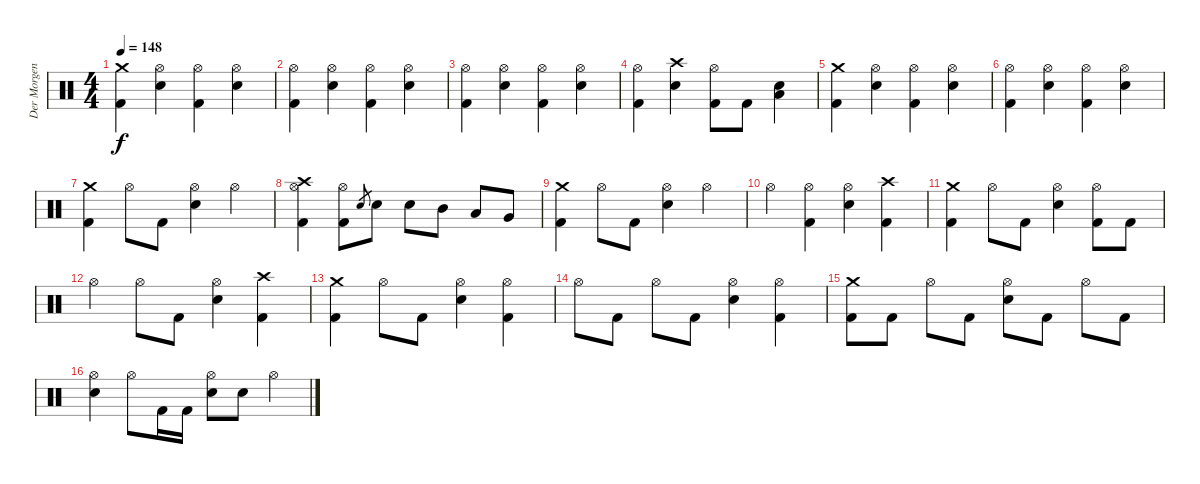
\track ("Der Morgenstern" "Der Morgen") {instrument percussion}
\staff {score}
\articulation defaults
\ts (4 4)
\tempo 148
\clef neutral
\ks c
("Crash medium (hit)" "Kick (hit) 2").4{dy f} ("Hi-Hat (open)" "Electric Snare (hit)").4 ("Hi-Hat (open)" "Kick (hit) 2").4 ("Hi-Hat (open)" "Electric Snare (hit)").4 |
("Hi-Hat (open)" "Kick (hit) 2").4 ("Hi-Hat (open)" "Electric Snare (hit)").4 ("Hi-Hat (open)" "Kick (hit) 2").4 ("Hi-Hat (open)" "Electric Snare (hit)").4 |
("Hi-Hat (open)" "Kick (hit) 2").4 ("Hi-Hat (open)" "Electric Snare (hit)").4 ("Hi-Hat (open)" "Kick (hit) 2").4 ("Hi-Hat (open)" "Electric Snare (hit)").4 |
("Hi-Hat (open)" "Kick (hit) 2").4 ("Crash high (hit)" "Electric Snare (hit)").4 ("Hi-Hat (open)" "Kick (hit) 2").8 "Kick (hit) 2".8 ("Low Tom (hit)" "Electric Snare (hit)").4 |
("Crash medium (hit)" "Kick (hit) 2").4 ("Hi-Hat (open)" "Electric Snare (hit)").4 ("Hi-Hat (open)" "Kick (hit) 2").4 ("Hi-Hat (open)" "Electric Snare (hit)").4 |
("Hi-Hat (open)" "Kick (hit) 2").4 ("Hi-Hat (open)" "Electric Snare (hit)").4 ("Hi-Hat (open)" "Kick (hit) 2").4 ("Hi-Hat (open)" "Electric Snare (hit)").4 |
("Crash medium (hit)" "Kick (hit) 2").4 "Hi-Hat (open)".8 "Kick (hit) 2".8 ("Hi-Hat (open)" "Electric Snare (hit)").4 "Hi-Hat (open)".4 |
("Crash high (hit)" "Hi-Hat (open)" "Kick (hit) 2").4 ("Hi-Hat (open)" "Kick (hit) 2").8 "Electric Snare (hit)".8{gr} "Electric Snare (hit)".8 "Electric Snare (hit)".8 "Mid Tom (hit)".8 "Low Tom (hit)".8 "Very Low Tom (hit)".8 |
("Crash medium (hit)" "Kick (hit) 2").4 "Hi-Hat (open)".8 "Kick (hit) 2".8 ("Hi-Hat (open)" "Electric Snare (hit)").4 "Hi-Hat (open)".4 |
"Hi-Hat (open)".4 ("Hi-Hat (open)" "Kick (hit) 2").4 ("Hi-Hat (open)" "Electric Snare (hit)").4 ("Crash high (hit)" "Kick (hit) 2").4 |
("Crash medium (hit)" "Kick (hit) 2").4 "Hi-Hat (open)".8 "Kick (hit) 2".8 ("Hi-Hat (open)" "Electric Snare (hit)").4 ("Hi-Hat (open)" "Kick (hit) 2").8 "Kick (hit) 2".8 |
"Hi-Hat (open)".4 "Hi-Hat (open)".8 "Kick (hit) 2".8 ("Hi-Hat (open)" "Electric Snare (hit)").4 ("Crash high (hit)" "Kick (hit) 2").4 |
("Crash medium (hit)" "Kick (hit) 2").4 "Hi-Hat (open)".8 "Kick (hit) 2".8 ("Hi-Hat (open)" "Electric Snare (hit)").4 ("Hi-Hat (open)" "Kick (hit) 2").4 |
"Hi-Hat (open)".8 "Kick (hit) 2".8 "Hi-Hat (open)".8 "Kick (hit) 2".8 ("Hi-Hat (open)" "Electric Snare (hit)").4 ("Hi-Hat (open)" "Kick (hit) 2").4 |
("Crash medium (hit)" "Kick (hit) 2").8 "Kick (hit) 2".8 "Hi-Hat (open)".8 "Kick (hit) 2".8 ("Hi-Hat (open)" "Electric Snare (hit)").8 "Kick (hit) 2".8 "Hi-Hat (open)".8 "Kick (hit) 2".8 |
("Hi-Hat (open)" "Electric Snare (hit)").4 "Hi-Hat (open)".8 "Kick (hit) 2".16 "Kick (hit) 2".16 ("Hi-Hat (open)" "Electric Snare (hit)").8 "Electric Snare (hit)".8 "Hi-Hat (open)".4
